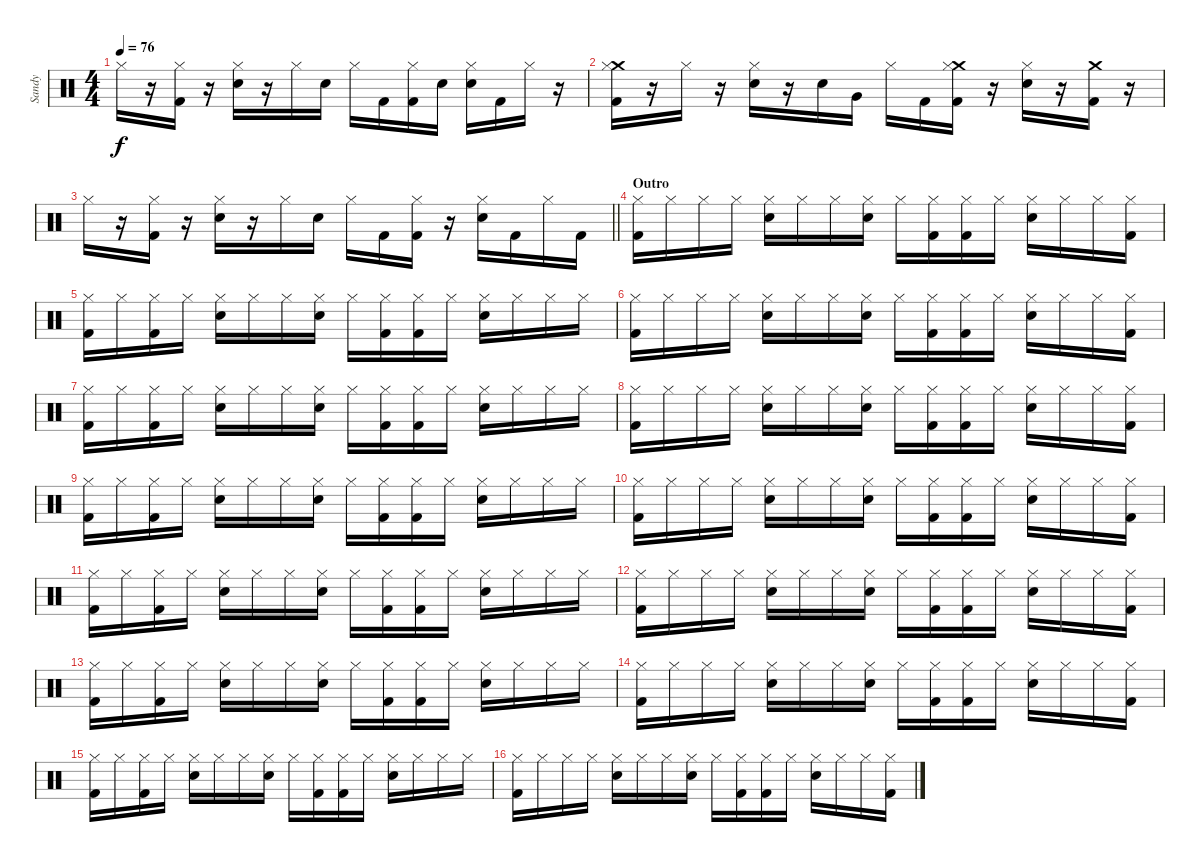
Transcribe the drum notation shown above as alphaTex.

\track ("Sandy" "Sandy") {instrument percussion}
\staff {score}
\articulation defaults
\ts (4 4)
\tempo 76
\clef neutral
\ks c "Hi-Hat (closed)".16{dy f}
r.16 ("Hi-Hat (closed)" "Kick (hit) 2").16 r.16 ("Hi-Hat (closed)" "Electric Snare (hit)").16 r.16 "Hi-Hat (closed)".16 "Electric Snare (hit)".16 "Hi-Hat (closed)".16 "Kick (hit) 2".16 ("Hi-Hat (closed)" "Kick (hit) 2").16 "Electric Snare (hit)".16 ("Hi-Hat (closed)" "Electric Snare (hit)").16 "Kick (hit) 2".16 "Hi-Hat (closed)".16 r.16 |
("Crash medium (hit)" "Hi-Hat (closed)" "Kick (hit) 2").16 r.16 "Hi-Hat (closed)".16 r.16 ("Hi-Hat (closed)" "Electric Snare (hit)").16 r.16 "Electric Snare (hit)".16 "Very Low Tom (hit)".16 "Hi-Hat (closed)".16 "Kick (hit) 2".16 ("Crash medium (hit)" "Hi-Hat (closed)" "Kick (hit) 2").16 r.16 ("Hi-Hat (closed)" "Electric Snare (hit)").16 r.16 ("Crash medium (hit)" "Kick (hit) 2").16 r.16 |
\barLineRight lightlight "Hi-Hat (closed)".16
r.16 ("Hi-Hat (closed)" "Kick (hit) 2").16 r.16 ("Hi-Hat (closed)" "Electric Snare (hit)").16 r.16 "Hi-Hat (closed)".16 "Electric Snare (hit)".16 "Hi-Hat (closed)".16 "Kick (hit) 2".16 ("Hi-Hat (closed)" "Kick (hit) 2").16 r.16 ("Hi-Hat (closed)" "Electric Snare (hit)").16 "Kick (hit) 2".16 "Hi-Hat (closed)".16 "Kick (hit) 2".16 |
\section ("" "Outro")
("Hi-Hat (closed)" "Kick (hit) 2").16 "Hi-Hat (closed)".16 "Hi-Hat (closed)".16 "Hi-Hat (closed)".16 ("Hi-Hat (closed)" "Electric Snare (hit)").16 "Hi-Hat (closed)".16 "Hi-Hat (closed)".16 ("Hi-Hat (closed)" "Electric Snare (hit)").16 "Hi-Hat (closed)".16 ("Hi-Hat (closed)" "Kick (hit) 2").16 ("Hi-Hat (closed)" "Kick (hit) 2").16 "Hi-Hat (closed)".16 ("Hi-Hat (closed)" "Electric Snare (hit)").16 "Hi-Hat (closed)".16 "Hi-Hat (closed)".16 ("Hi-Hat (closed)" "Kick (hit) 2").16 |
("Hi-Hat (closed)" "Kick (hit) 2").16 "Hi-Hat (closed)".16 ("Hi-Hat (closed)" "Kick (hit) 2").16 "Hi-Hat (closed)".16 ("Hi-Hat (closed)" "Electric Snare (hit)").16 "Hi-Hat (closed)".16 "Hi-Hat (closed)".16 ("Hi-Hat (closed)" "Electric Snare (hit)").16 "Hi-Hat (closed)".16 ("Hi-Hat (closed)" "Kick (hit) 2").16 ("Hi-Hat (closed)" "Kick (hit) 2").16 "Hi-Hat (closed)".16 ("Hi-Hat (closed)" "Electric Snare (hit)").16 "Hi-Hat (closed)".16 "Hi-Hat (closed)".16 "Hi-Hat (closed)".16 |
("Hi-Hat (closed)" "Kick (hit) 2").16 "Hi-Hat (closed)".16 "Hi-Hat (closed)".16 "Hi-Hat (closed)".16 ("Hi-Hat (closed)" "Electric Snare (hit)").16 "Hi-Hat (closed)".16 "Hi-Hat (closed)".16 ("Hi-Hat (closed)" "Electric Snare (hit)").16 "Hi-Hat (closed)".16 ("Hi-Hat (closed)" "Kick (hit) 2").16 ("Hi-Hat (closed)" "Kick (hit) 2").16 "Hi-Hat (closed)".16 ("Hi-Hat (closed)" "Electric Snare (hit)").16 "Hi-Hat (closed)".16 "Hi-Hat (closed)".16 ("Hi-Hat (closed)" "Kick (hit) 2").16 |
("Hi-Hat (closed)" "Kick (hit) 2").16 "Hi-Hat (closed)".16 ("Hi-Hat (closed)" "Kick (hit) 2").16 "Hi-Hat (closed)".16 ("Hi-Hat (closed)" "Electric Snare (hit)").16 "Hi-Hat (closed)".16 "Hi-Hat (closed)".16 ("Hi-Hat (closed)" "Electric Snare (hit)").16 "Hi-Hat (closed)".16 ("Hi-Hat (closed)" "Kick (hit) 2").16 ("Hi-Hat (closed)" "Kick (hit) 2").16 "Hi-Hat (closed)".16 ("Hi-Hat (closed)" "Electric Snare (hit)").16 "Hi-Hat (closed)".16 "Hi-Hat (closed)".16 "Hi-Hat (closed)".16 |
("Hi-Hat (closed)" "Kick (hit) 2").16 "Hi-Hat (closed)".16 "Hi-Hat (closed)".16 "Hi-Hat (closed)".16 ("Hi-Hat (closed)" "Electric Snare (hit)").16 "Hi-Hat (closed)".16 "Hi-Hat (closed)".16 ("Hi-Hat (closed)" "Electric Snare (hit)").16 "Hi-Hat (closed)".16 ("Hi-Hat (closed)" "Kick (hit) 2").16 ("Hi-Hat (closed)" "Kick (hit) 2").16 "Hi-Hat (closed)".16 ("Hi-Hat (closed)" "Electric Snare (hit)").16 "Hi-Hat (closed)".16 "Hi-Hat (closed)".16 ("Hi-Hat (closed)" "Kick (hit) 2").16 |
("Hi-Hat (closed)" "Kick (hit) 2").16 "Hi-Hat (closed)".16 ("Hi-Hat (closed)" "Kick (hit) 2").16 "Hi-Hat (closed)".16 ("Hi-Hat (closed)" "Electric Snare (hit)").16 "Hi-Hat (closed)".16 "Hi-Hat (closed)".16 ("Hi-Hat (closed)" "Electric Snare (hit)").16 "Hi-Hat (closed)".16 ("Hi-Hat (closed)" "Kick (hit) 2").16 ("Hi-Hat (closed)" "Kick (hit) 2").16 "Hi-Hat (closed)".16 ("Hi-Hat (closed)" "Electric Snare (hit)").16 "Hi-Hat (closed)".16 "Hi-Hat (closed)".16 "Hi-Hat (closed)".16 |
("Hi-Hat (closed)" "Kick (hit) 2").16 "Hi-Hat (closed)".16 "Hi-Hat (closed)".16 "Hi-Hat (closed)".16 ("Hi-Hat (closed)" "Electric Snare (hit)").16 "Hi-Hat (closed)".16 "Hi-Hat (closed)".16 ("Hi-Hat (closed)" "Electric Snare (hit)").16 "Hi-Hat (closed)".16 ("Hi-Hat (closed)" "Kick (hit) 2").16 ("Hi-Hat (closed)" "Kick (hit) 2").16 "Hi-Hat (closed)".16 ("Hi-Hat (closed)" "Electric Snare (hit)").16 "Hi-Hat (closed)".16 "Hi-Hat (closed)".16 ("Hi-Hat (closed)" "Kick (hit) 2").16 |
("Hi-Hat (closed)" "Kick (hit) 2").16 "Hi-Hat (closed)".16 ("Hi-Hat (closed)" "Kick (hit) 2").16 "Hi-Hat (closed)".16 ("Hi-Hat (closed)" "Electric Snare (hit)").16 "Hi-Hat (closed)".16 "Hi-Hat (closed)".16 ("Hi-Hat (closed)" "Electric Snare (hit)").16 "Hi-Hat (closed)".16 ("Hi-Hat (closed)" "Kick (hit) 2").16 ("Hi-Hat (closed)" "Kick (hit) 2").16 "Hi-Hat (closed)".16 ("Hi-Hat (closed)" "Electric Snare (hit)").16 "Hi-Hat (closed)".16 "Hi-Hat (closed)".16 "Hi-Hat (closed)".16 |
("Hi-Hat (closed)" "Kick (hit) 2").16 "Hi-Hat (closed)".16 "Hi-Hat (closed)".16 "Hi-Hat (closed)".16 ("Hi-Hat (closed)" "Electric Snare (hit)").16 "Hi-Hat (closed)".16 "Hi-Hat (closed)".16 ("Hi-Hat (closed)" "Electric Snare (hit)").16 "Hi-Hat (closed)".16 ("Hi-Hat (closed)" "Kick (hit) 2").16 ("Hi-Hat (closed)" "Kick (hit) 2").16 "Hi-Hat (closed)".16 ("Hi-Hat (closed)" "Electric Snare (hit)").16 "Hi-Hat (closed)".16 "Hi-Hat (closed)".16 ("Hi-Hat (closed)" "Kick (hit) 2").16 |
("Hi-Hat (closed)" "Kick (hit) 2").16 "Hi-Hat (closed)".16 ("Hi-Hat (closed)" "Kick (hit) 2").16 "Hi-Hat (closed)".16 ("Hi-Hat (closed)" "Electric Snare (hit)").16 "Hi-Hat (closed)".16 "Hi-Hat (closed)".16 ("Hi-Hat (closed)" "Electric Snare (hit)").16 "Hi-Hat (closed)".16 ("Hi-Hat (closed)" "Kick (hit) 2").16 ("Hi-Hat (closed)" "Kick (hit) 2").16 "Hi-Hat (closed)".16 ("Hi-Hat (closed)" "Electric Snare (hit)").16 "Hi-Hat (closed)".16 "Hi-Hat (closed)".16 "Hi-Hat (closed)".16 |
("Hi-Hat (closed)" "Kick (hit) 2").16 "Hi-Hat (closed)".16 "Hi-Hat (closed)".16 "Hi-Hat (closed)".16 ("Hi-Hat (closed)" "Electric Snare (hit)").16 "Hi-Hat (closed)".16 "Hi-Hat (closed)".16 ("Hi-Hat (closed)" "Electric Snare (hit)").16 "Hi-Hat (closed)".16 ("Hi-Hat (closed)" "Kick (hit) 2").16 ("Hi-Hat (closed)" "Kick (hit) 2").16 "Hi-Hat (closed)".16 ("Hi-Hat (closed)" "Electric Snare (hit)").16 "Hi-Hat (closed)".16 "Hi-Hat (closed)".16 ("Hi-Hat (closed)" "Kick (hit) 2").16 |
("Hi-Hat (closed)" "Kick (hit) 2").16 "Hi-Hat (closed)".16 ("Hi-Hat (closed)" "Kick (hit) 2").16 "Hi-Hat (closed)".16 ("Hi-Hat (closed)" "Electric Snare (hit)").16 "Hi-Hat (closed)".16 "Hi-Hat (closed)".16 ("Hi-Hat (closed)" "Electric Snare (hit)").16 "Hi-Hat (closed)".16 ("Hi-Hat (closed)" "Kick (hit) 2").16 ("Hi-Hat (closed)" "Kick (hit) 2").16 "Hi-Hat (closed)".16 ("Hi-Hat (closed)" "Electric Snare (hit)").16 "Hi-Hat (closed)".16 "Hi-Hat (closed)".16 "Hi-Hat (closed)".16 |
("Hi-Hat (closed)" "Kick (hit) 2").16 "Hi-Hat (closed)".16 "Hi-Hat (closed)".16 "Hi-Hat (closed)".16 ("Hi-Hat (closed)" "Electric Snare (hit)").16 "Hi-Hat (closed)".16 "Hi-Hat (closed)".16 ("Hi-Hat (closed)" "Electric Snare (hit)").16 "Hi-Hat (closed)".16 ("Hi-Hat (closed)" "Kick (hit) 2").16 ("Hi-Hat (closed)" "Kick (hit) 2").16 "Hi-Hat (closed)".16 ("Hi-Hat (closed)" "Electric Snare (hit)").16 "Hi-Hat (closed)".16 "Hi-Hat (closed)".16 ("Hi-Hat (closed)" "Kick (hit) 2").16
